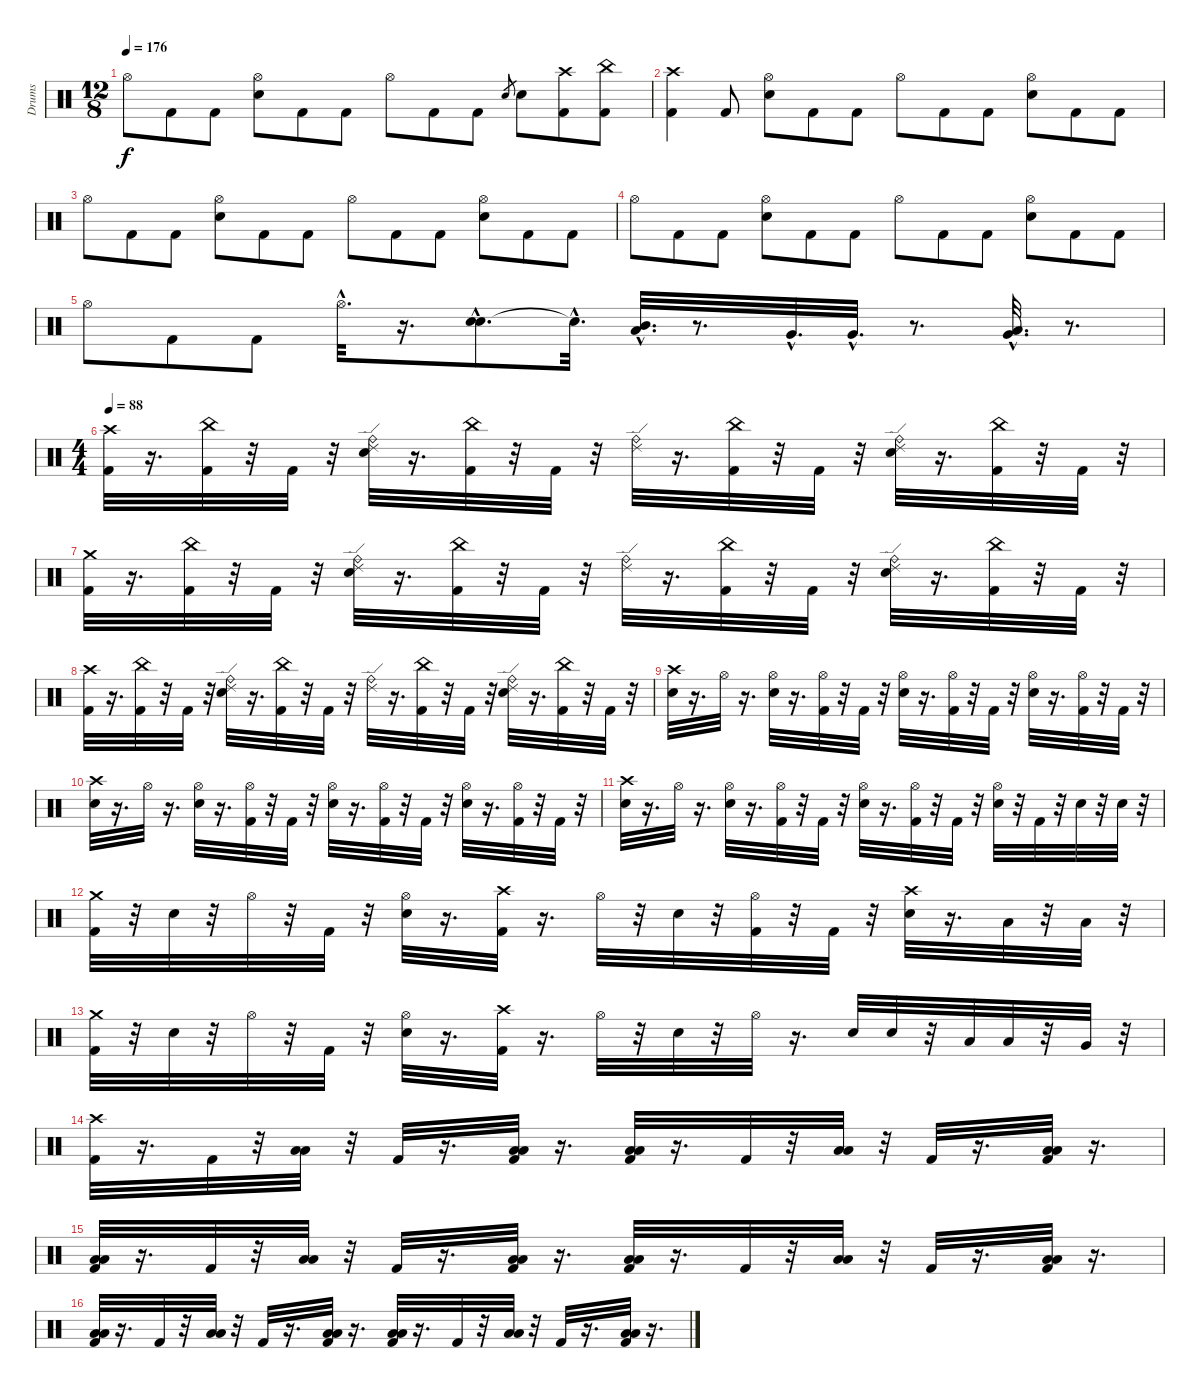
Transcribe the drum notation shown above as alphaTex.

\track ("Drums" "Drums") {instrument percussion}
\staff {score}
\articulation defaults
\ts (12 8)
\tempo 176
\clef neutral
\ks c "Hi-Hat (open)".8{dy f} "Kick (hit) 2".8 "Kick (hit) 2".8
("Hi-Hat (open)" "Snare (hit) 2").8 "Kick (hit) 2".8 "Kick (hit) 2".8 "Hi-Hat (open)".8 "Kick (hit) 2".8 "Kick (hit) 2".8 "Snare (hit) 2".8{gr} "Snare (hit) 2".8 ("Kick (hit) 2" "Crash high (hit)").8 ("Kick (hit) 2" "China (hit)").8 |
("Crash high (hit)" "Kick (hit) 2").4 "Kick (hit) 2".8 ("Hi-Hat (open)" "Snare (hit) 2").8 "Kick (hit) 2".8 "Kick (hit) 2".8 "Hi-Hat (open)".8 "Kick (hit) 2".8 "Kick (hit) 2".8 ("Hi-Hat (open)" "Snare (hit) 2").8 "Kick (hit) 2".8 "Kick (hit) 2".8 |
"Hi-Hat (open)".8 "Kick (hit) 2".8 "Kick (hit) 2".8 ("Hi-Hat (open)" "Snare (hit) 2").8 "Kick (hit) 2".8 "Kick (hit) 2".8 "Hi-Hat (open)".8 "Kick (hit) 2".8 "Kick (hit) 2".8 ("Hi-Hat (open)" "Snare (hit) 2").8 "Kick (hit) 2".8 "Kick (hit) 2".8 |
"Hi-Hat (open)".8 "Kick (hit) 2".8 "Kick (hit) 2".8 ("Hi-Hat (open)" "Snare (hit) 2").8 "Kick (hit) 2".8 "Kick (hit) 2".8 "Hi-Hat (open)".8 "Kick (hit) 2".8 "Kick (hit) 2".8 ("Hi-Hat (open)" "Snare (hit) 2").8 "Kick (hit) 2".8 "Kick (hit) 2".8 |
"Hi-Hat (open)".8 "Kick (hit) 2".8 "Kick (hit) 2".8 "Hi-Hat (open)"{hac}.32{d} r.16{d} ("Snare (hit) 2"{hac} "Snare (hit) 2").8{d} "Snare (hit)"{hac t}.32{d} ("Mid Tom (hit)"{hac} "Low Tom (hit)"{hac}).32{d} r.8{d} "Very Low Tom (hit)"{hac}.32{d} "Very Low Tom (hit)"{hac}.32{d} r.8{d} ("Low Floor Tom (hit)"{hac} "Very Low Tom (hit)"{hac}).32{d} r.8{d} |
\ts (4 4)
\tempo 88
("Crash high (hit)" "Kick (hit) 2").32 r.16{d} ("China (hit)" "Kick (hit) 2").32 r.32 "Kick (hit) 2".32 r.32 ("Ride (edge) 2" "Ride (bell)" "Snare (hit) 2").32 r.16{d} ("China (hit)" "Kick (hit) 2").32 r.32 "Kick (hit) 2".32 r.32 ("Ride (bell)" "Ride (edge) 2").32 r.16{d} ("China (hit)" "Kick (hit) 2").32 r.32 "Kick (hit) 2".32 r.32 ("Ride (bell)" "Ride (edge) 2" "Snare (hit) 2").32 r.16{d} ("China (hit)" "Kick (hit) 2").32 r.32 "Kick (hit) 2".32 r.32 |
("Crash medium (hit)" "Kick (hit) 2").32 r.16{d} ("Kick (hit) 2" "China (hit)").32 r.32 "Kick (hit) 2".32 r.32 ("Snare (hit) 2" "Ride (bell)" "Ride (edge) 2").32 r.16{d} ("Kick (hit) 2" "China (hit)").32 r.32 "Kick (hit) 2".32 r.32 ("Ride (bell)" "Ride (edge) 2").32 r.16{d} ("Kick (hit) 2" "China (hit)").32 r.32 "Kick (hit) 2".32 r.32 ("Snare (hit) 2" "Ride (bell)" "Ride (edge) 2").32 r.16{d} ("Kick (hit) 2" "China (hit)").32 r.32 "Kick (hit) 2".32 r.32 |
("Crash high (hit)" "Kick (hit) 2").32 r.16{d} ("China (hit)" "Kick (hit) 2").32 r.32 "Kick (hit) 2".32 r.32 ("Ride (edge) 2" "Ride (bell)" "Snare (hit) 2").32 r.16{d} ("China (hit)" "Kick (hit) 2").32 r.32 "Kick (hit) 2".32 r.32 ("Ride (bell)" "Ride (edge) 2").32 r.16{d} ("China (hit)" "Kick (hit) 2").32 r.32 "Kick (hit) 2".32 r.32 ("Ride (bell)" "Ride (edge) 2" "Snare (hit) 2").32 r.16{d} ("China (hit)" "Kick (hit) 2").32 r.32 "Kick (hit) 2".32 r.32 |
("Crash high (hit)" "Snare (hit) 2").32 r.16{d} "Hi-Hat (open)".32 r.16{d} ("Hi-Hat (open)" "Snare (hit) 2").32 r.16{d} ("Hi-Hat (open)" "Kick (hit) 2").32 r.32 "Kick (hit) 2".32 r.32 ("Hi-Hat (open)" "Snare (hit) 2").32 r.16{d} ("Hi-Hat (open)" "Kick (hit) 2").32 r.32 "Kick (hit) 2".32 r.32 ("Hi-Hat (open)" "Snare (hit) 2").32 r.16{d} ("Hi-Hat (open)" "Kick (hit) 2").32 r.32 "Kick (hit) 2".32 r.32 |
("Crash high (hit)" "Snare (hit) 2").32 r.16{d} "Hi-Hat (open)".32 r.16{d} ("Hi-Hat (open)" "Snare (hit) 2").32 r.16{d} ("Hi-Hat (open)" "Kick (hit) 2").32 r.32 "Kick (hit) 2".32 r.32 ("Hi-Hat (open)" "Snare (hit) 2").32 r.16{d} ("Hi-Hat (open)" "Kick (hit) 2").32 r.32 "Kick (hit) 2".32 r.32 ("Hi-Hat (open)" "Snare (hit) 2").32 r.16{d} ("Hi-Hat (open)" "Kick (hit) 2").32 r.32 "Kick (hit) 2".32 r.32 |
("Crash high (hit)" "Snare (hit) 2").32 r.16{d} "Hi-Hat (open)".32 r.16{d} ("Hi-Hat (open)" "Snare (hit) 2").32 r.16{d} ("Hi-Hat (open)" "Kick (hit) 2").32 r.32 "Kick (hit) 2".32 r.32 ("Hi-Hat (open)" "Snare (hit) 2").32 r.16{d} ("Hi-Hat (open)" "Kick (hit) 2").32 r.32 "Kick (hit) 2".32 r.32 ("Hi-Hat (open)" "Snare (hit) 2").32 r.32 "Kick (hit) 2".32 r.32 "Snare (hit) 2".32 r.32 "Snare (hit) 2".32 r.32 |
("Crash medium (hit)" "Kick (hit) 2").32 r.32 "Snare (hit) 2".32 r.32 "Hi-Hat (open)".32 r.32 "Kick (hit) 2".32 r.32 ("Hi-Hat (open)" "Snare (hit) 2").32 r.16{d} ("Kick (hit) 2" "Crash high (hit)").32 r.16{d} "Hi-Hat (open)".32 r.32 "Snare (hit) 2".32 r.32 ("Hi-Hat (open)" "Kick (hit) 2").32 r.32 "Kick (hit) 2".32 r.32 ("Crash high (hit)" "Snare (hit) 2").32 r.16{d} "Low Tom (hit)".32 r.32 "Low Tom (hit)".32 r.32 |
("Crash medium (hit)" "Kick (hit) 2").32 r.32 "Snare (hit) 2".32 r.32 "Hi-Hat (open)".32 r.32 "Kick (hit) 2".32 r.32 ("Hi-Hat (open)" "Snare (hit) 2").32 r.16{d} ("Kick (hit) 2" "Crash high (hit)").32 r.16{d} "Hi-Hat (open)".32 r.32 "Snare (hit) 2".32 r.32 "Hi-Hat (open)".32 r.16{d} "Snare (hit) 2".32 "Snare (hit) 2".32 r.32 "Low Tom (hit)".32 "Low Tom (hit)".32 r.32 "Very Low Tom (hit)".32 r.32 |
("Crash high (hit)" "Kick (hit) 2").32 r.16{d} "Kick (hit) 2".32 r.32 ("Low Tom (hit)" "Low Floor Tom (hit)").32 r.32 "Kick (hit) 2".32 r.16{d} ("Kick (hit) 2" "Low Floor Tom (hit)" "Low Tom (hit)").32 r.16{d} ("Low Tom (hit)" "Low Floor Tom (hit)" "Kick (hit) 2").32 r.16{d} "Kick (hit) 2".32 r.32 ("Low Floor Tom (hit)" "Low Tom (hit)").32 r.32 "Kick (hit) 2".32 r.16{d} ("Kick (hit) 2" "Low Tom (hit)" "Low Floor Tom (hit)").32 r.16{d} |
("Low Tom (hit)" "Low Floor Tom (hit)" "Kick (hit) 2").32 r.16{d} "Kick (hit) 2".32 r.32 ("Low Tom (hit)" "Low Floor Tom (hit)").32 r.32 "Kick (hit) 2".32 r.16{d} ("Kick (hit) 2" "Low Floor Tom (hit)" "Low Tom (hit)").32 r.16{d} ("Low Tom (hit)" "Low Floor Tom (hit)" "Kick (hit) 2").32 r.16{d} "Kick (hit) 2".32 r.32 ("Low Floor Tom (hit)" "Low Tom (hit)").32 r.32 "Kick (hit) 2".32 r.16{d} ("Kick (hit) 2" "Low Tom (hit)" "Low Floor Tom (hit)").32 r.16{d} |
("Low Tom (hit)" "Low Floor Tom (hit)" "Kick (hit) 2").32 r.16{d} "Kick (hit) 2".32 r.32 ("Low Tom (hit)" "Low Floor Tom (hit)").32 r.32 "Kick (hit) 2".32 r.16{d} ("Kick (hit) 2" "Low Floor Tom (hit)" "Low Tom (hit)").32 r.16{d} ("Low Tom (hit)" "Low Floor Tom (hit)" "Kick (hit) 2").32 r.16{d} "Kick (hit) 2".32 r.32 ("Low Floor Tom (hit)" "Low Tom (hit)").32 r.32 "Kick (hit) 2".32 r.16{d} ("Kick (hit) 2" "Low Tom (hit)" "Low Floor Tom (hit)").32 r.16{d}
